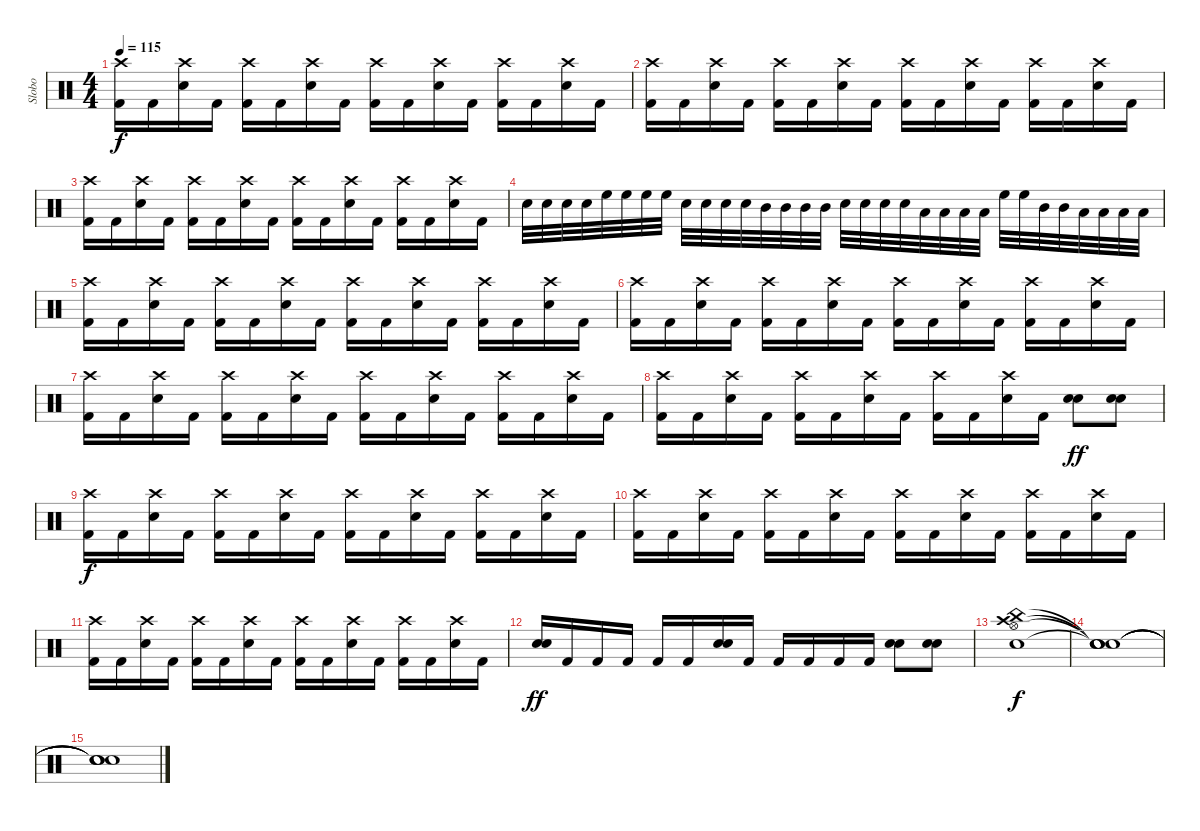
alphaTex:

\track ("Slobo" "Slobo") {instrument percussion}
\staff {score}
\articulation defaults
\ts (4 4)
\tempo 115
\clef neutral
\ks c
("Crash high (hit)" "Kick (hit) 2").16{dy f} "Kick (hit) 2".16 ("Crash high (hit)" "Snare (hit) 2").16 "Kick (hit) 2".16 ("Crash high (hit)" "Kick (hit) 2").16 "Kick (hit) 2".16 ("Crash high (hit)" "Snare (hit) 2").16 "Kick (hit) 2".16 ("Crash high (hit)" "Kick (hit) 2").16 "Kick (hit) 2".16 ("Crash high (hit)" "Snare (hit) 2").16 "Kick (hit) 2".16 ("Crash high (hit)" "Kick (hit) 2").16 "Kick (hit) 2".16 ("Crash high (hit)" "Snare (hit) 2").16 "Kick (hit) 2".16 |
("Crash high (hit)" "Kick (hit) 2").16 "Kick (hit) 2".16 ("Crash high (hit)" "Snare (hit) 2").16 "Kick (hit) 2".16 ("Crash high (hit)" "Kick (hit) 2").16 "Kick (hit) 2".16 ("Crash high (hit)" "Snare (hit) 2").16 "Kick (hit) 2".16 ("Crash high (hit)" "Kick (hit) 2").16 "Kick (hit) 2".16 ("Crash high (hit)" "Snare (hit) 2").16 "Kick (hit) 2".16 ("Crash high (hit)" "Kick (hit) 2").16 "Kick (hit) 2".16 ("Crash high (hit)" "Snare (hit) 2").16 "Kick (hit) 2".16 |
("Crash high (hit)" "Kick (hit) 2").16 "Kick (hit) 2".16 ("Crash high (hit)" "Snare (hit) 2").16 "Kick (hit) 2".16 ("Crash high (hit)" "Kick (hit) 2").16 "Kick (hit) 2".16 ("Crash high (hit)" "Snare (hit) 2").16 "Kick (hit) 2".16 ("Crash high (hit)" "Kick (hit) 2").16 "Kick (hit) 2".16 ("Crash high (hit)" "Snare (hit) 2").16 "Kick (hit) 2".16 ("Crash high (hit)" "Kick (hit) 2").16 "Kick (hit) 2".16 ("Crash high (hit)" "Snare (hit) 2").16 "Kick (hit) 2".16 |
"Snare (hit) 2".32 "Snare (hit) 2".32 "Snare (hit) 2".32 "Snare (hit) 2".32 "High Floor Tom (hit)".32 "High Floor Tom (hit)".32 "High Floor Tom (hit)".32 "High Floor Tom (hit)".32 "Snare (hit) 2".32 "Snare (hit) 2".32 "Snare (hit) 2".32 "Snare (hit) 2".32 "Mid Tom (hit)".32 "Mid Tom (hit)".32 "Mid Tom (hit)".32 "Mid Tom (hit)".32 "Snare (hit) 2".32 "Snare (hit) 2".32 "Snare (hit) 2".32 "Snare (hit) 2".32 "Low Tom (hit)".32 "Low Tom (hit)".32 "Low Tom (hit)".32 "Low Tom (hit)".32 "High Floor Tom (hit)".32 "High Floor Tom (hit)".32 "Mid Tom (hit)".32 "Mid Tom (hit)".32 "Low Tom (hit)".32 "Low Tom (hit)".32 "Low Floor Tom (hit)".32 "Low Floor Tom (hit)".32 |
("Crash high (hit)" "Kick (hit) 2").16 "Kick (hit) 2".16 ("Crash high (hit)" "Snare (hit) 2").16 "Kick (hit) 2".16 ("Crash high (hit)" "Kick (hit) 2").16 "Kick (hit) 2".16 ("Crash high (hit)" "Snare (hit) 2").16 "Kick (hit) 2".16 ("Crash high (hit)" "Kick (hit) 2").16 "Kick (hit) 2".16 ("Crash high (hit)" "Snare (hit) 2").16 "Kick (hit) 2".16 ("Crash high (hit)" "Kick (hit) 2").16 "Kick (hit) 2".16 ("Crash high (hit)" "Snare (hit) 2").16 "Kick (hit) 2".16 |
("Crash high (hit)" "Kick (hit) 2").16 "Kick (hit) 2".16 ("Crash high (hit)" "Snare (hit) 2").16 "Kick (hit) 2".16 ("Crash high (hit)" "Kick (hit) 2").16 "Kick (hit) 2".16 ("Crash high (hit)" "Snare (hit) 2").16 "Kick (hit) 2".16 ("Crash high (hit)" "Kick (hit) 2").16 "Kick (hit) 2".16 ("Crash high (hit)" "Snare (hit) 2").16 "Kick (hit) 2".16 ("Crash high (hit)" "Kick (hit) 2").16 "Kick (hit) 2".16 ("Crash high (hit)" "Snare (hit) 2").16 "Kick (hit) 2".16 |
("Crash high (hit)" "Kick (hit) 2").16 "Kick (hit) 2".16 ("Crash high (hit)" "Snare (hit) 2").16 "Kick (hit) 2".16 ("Crash high (hit)" "Kick (hit) 2").16 "Kick (hit) 2".16 ("Crash high (hit)" "Snare (hit) 2").16 "Kick (hit) 2".16 ("Crash high (hit)" "Kick (hit) 2").16 "Kick (hit) 2".16 ("Crash high (hit)" "Snare (hit) 2").16 "Kick (hit) 2".16 ("Crash high (hit)" "Kick (hit) 2").16 "Kick (hit) 2".16 ("Crash high (hit)" "Snare (hit) 2").16 "Kick (hit) 2".16 |
("Crash high (hit)" "Kick (hit) 2").16 "Kick (hit) 2".16 ("Crash high (hit)" "Snare (hit) 2").16 "Kick (hit) 2".16 ("Crash high (hit)" "Kick (hit) 2").16 "Kick (hit) 2".16 ("Crash high (hit)" "Snare (hit) 2").16 "Kick (hit) 2".16 ("Crash high (hit)" "Kick (hit) 2").16 "Kick (hit) 2".16 ("Crash high (hit)" "Snare (hit) 2").16 "Kick (hit) 2".16 ("Snare (hit) 2" "Snare (hit) 2").8{bd 480 dy ff} ("Snare (hit) 2" "Snare (hit) 2").8{bd 480} |
("Crash high (hit)" "Kick (hit) 2").16{dy f} "Kick (hit) 2".16 ("Crash high (hit)" "Snare (hit) 2").16 "Kick (hit) 2".16 ("Crash high (hit)" "Kick (hit) 2").16 "Kick (hit) 2".16 ("Crash high (hit)" "Snare (hit) 2").16 "Kick (hit) 2".16 ("Crash high (hit)" "Kick (hit) 2").16 "Kick (hit) 2".16 ("Crash high (hit)" "Snare (hit) 2").16 "Kick (hit) 2".16 ("Crash high (hit)" "Kick (hit) 2").16 "Kick (hit) 2".16 ("Crash high (hit)" "Snare (hit) 2").16 "Kick (hit) 2".16 |
("Crash high (hit)" "Kick (hit) 2").16 "Kick (hit) 2".16 ("Crash high (hit)" "Snare (hit) 2").16 "Kick (hit) 2".16 ("Crash high (hit)" "Kick (hit) 2").16 "Kick (hit) 2".16 ("Crash high (hit)" "Snare (hit) 2").16 "Kick (hit) 2".16 ("Crash high (hit)" "Kick (hit) 2").16 "Kick (hit) 2".16 ("Crash high (hit)" "Snare (hit) 2").16 "Kick (hit) 2".16 ("Crash high (hit)" "Kick (hit) 2").16 "Kick (hit) 2".16 ("Crash high (hit)" "Snare (hit) 2").16 "Kick (hit) 2".16 |
("Crash high (hit)" "Kick (hit) 2").16 "Kick (hit) 2".16 ("Crash high (hit)" "Snare (hit) 2").16 "Kick (hit) 2".16 ("Crash high (hit)" "Kick (hit) 2").16 "Kick (hit) 2".16 ("Crash high (hit)" "Snare (hit) 2").16 "Kick (hit) 2".16 ("Crash high (hit)" "Kick (hit) 2").16 "Kick (hit) 2".16 ("Crash high (hit)" "Snare (hit) 2").16 "Kick (hit) 2".16 ("Crash high (hit)" "Kick (hit) 2").16 "Kick (hit) 2".16 ("Crash high (hit)" "Snare (hit) 2").16 "Kick (hit) 2".16 |
("Snare (hit) 2" "Snare (hit) 2").16{bd 480 dy ff} "Kick (hit) 2".16 "Kick (hit) 2".16 "Kick (hit) 2".16 "Kick (hit) 2".16 "Kick (hit) 2".16 ("Snare (hit) 2" "Snare (hit) 2").16{bd 480} "Kick (hit) 2".16 "Kick (hit) 2".16 "Kick (hit) 2".16 "Kick (hit) 2".16 "Kick (hit) 2".16 ("Snare (hit) 2" "Snare (hit) 2").8{bd 480} ("Snare (hit) 2" "Snare (hit) 2").8{bd 480} |
("China (hit)" "Crash high (hit)" "Hi-Hat (open)" "Snare (hit) 2").1{dy f} |
("Snare (hit)"{t} "Snare (hit)"{t} "Snare (hit)"{t} "Snare (hit)"{t}).1 |
("Snare (hit)"{t} "Snare (hit)"{t} "Snare (hit)"{t} "Snare (hit)"{t}).1
